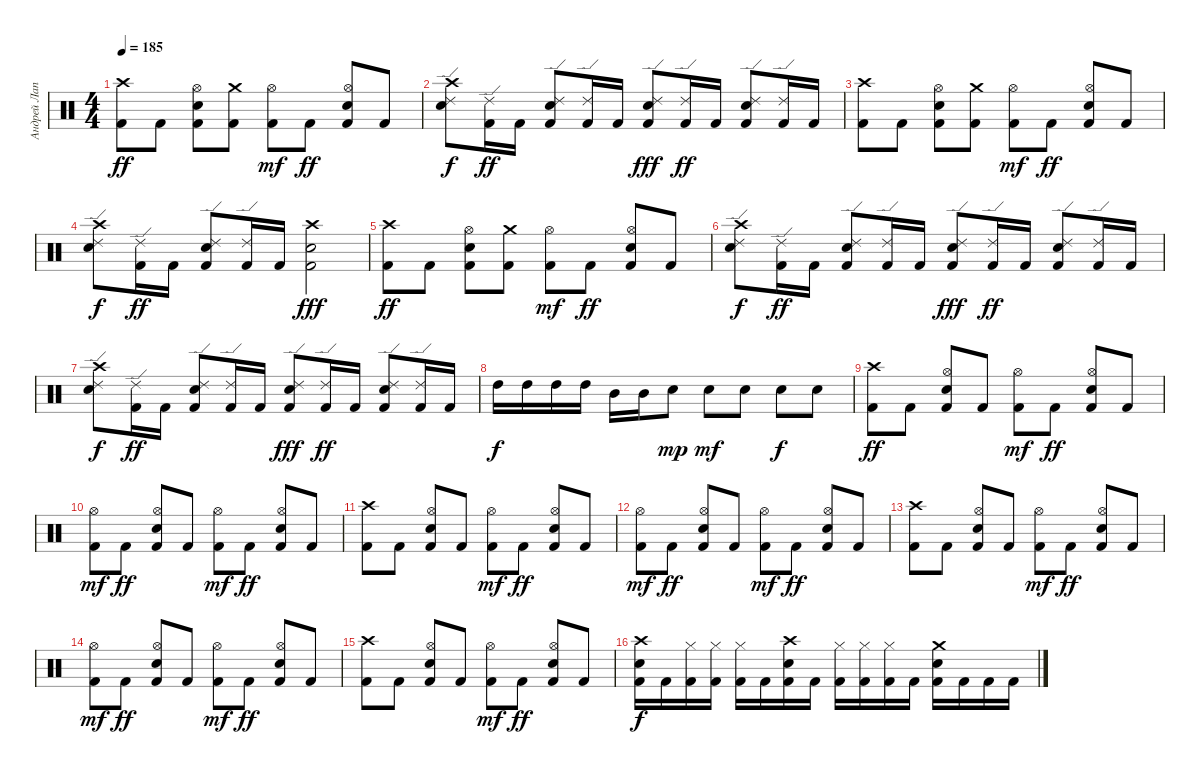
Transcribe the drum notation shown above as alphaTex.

\track ("Андрей Лаптев" "Андрей Лап") {instrument percussion}
\staff {score}
\articulation defaults
\ts (4 4)
\tempo 185
\clef neutral
\ks c
("Crash high (hit)" "Kick (hit) 2").8{dy ff} "Kick (hit) 2".8 ("Hi-Hat (open)" "Electric Snare (hit)" "Kick (hit) 2").8 ("Kick (hit) 2" "Crash medium (hit)").8 ("Kick (hit) 2" "Hi-Hat (open)").8{dy mf} "Kick (hit) 2".8{dy ff} ("Electric Snare (hit)" "Hi-Hat (open)" "Kick (hit) 2").8 "Kick (hit) 2".8 |
("Ride (edge) 2" "Crash high (hit)" "Electric Snare (hit)").8{dy f} ("Kick (hit) 2" "Ride (edge) 2").16{dy ff} "Kick (hit) 2".16 ("Kick (hit) 2" "Electric Snare (hit)" "Ride (edge) 2").8 ("Kick (hit) 2" "Ride (edge) 2").16 "Kick (hit) 2".16 ("Kick (hit) 2" "Ride (edge) 2" "Electric Snare (hit)").8{dy fff} ("Kick (hit) 2" "Ride (edge) 2").16{dy ff} "Kick (hit) 2".16 ("Ride (edge) 2" "Electric Snare (hit)" "Kick (hit) 2").8 ("Kick (hit) 2" "Ride (edge) 2").16 "Kick (hit) 2".16 |
("Crash high (hit)" "Kick (hit) 2").8 "Kick (hit) 2".8 ("Hi-Hat (open)" "Electric Snare (hit)" "Kick (hit) 2").8 ("Kick (hit) 2" "Crash medium (hit)").8 ("Kick (hit) 2" "Hi-Hat (open)").8{dy mf} "Kick (hit) 2".8{dy ff} ("Electric Snare (hit)" "Hi-Hat (open)" "Kick (hit) 2").8 "Kick (hit) 2".8 |
("Ride (edge) 2" "Crash high (hit)" "Electric Snare (hit)").8{dy f} ("Kick (hit) 2" "Ride (edge) 2").16{dy ff} "Kick (hit) 2".16 ("Kick (hit) 2" "Electric Snare (hit)" "Ride (edge) 2").8 ("Kick (hit) 2" "Ride (edge) 2").16 "Kick (hit) 2".16 ("Kick (hit) 2" "Crash high (hit)" "Electric Snare (hit)").2{dy fff} |
("Crash high (hit)" "Kick (hit) 2").8{dy ff} "Kick (hit) 2".8 ("Hi-Hat (open)" "Electric Snare (hit)" "Kick (hit) 2").8 ("Kick (hit) 2" "Crash medium (hit)").8 ("Kick (hit) 2" "Hi-Hat (open)").8{dy mf} "Kick (hit) 2".8{dy ff} ("Electric Snare (hit)" "Hi-Hat (open)" "Kick (hit) 2").8 "Kick (hit) 2".8 |
("Ride (edge) 2" "Crash high (hit)" "Electric Snare (hit)").8{dy f} ("Kick (hit) 2" "Ride (edge) 2").16{dy ff} "Kick (hit) 2".16 ("Kick (hit) 2" "Electric Snare (hit)" "Ride (edge) 2").8 ("Kick (hit) 2" "Ride (edge) 2").16 "Kick (hit) 2".16 ("Kick (hit) 2" "Ride (edge) 2" "Electric Snare (hit)").8{dy fff} ("Kick (hit) 2" "Ride (edge) 2").16{dy ff} "Kick (hit) 2".16 ("Ride (edge) 2" "Electric Snare (hit)" "Kick (hit) 2").8 ("Kick (hit) 2" "Ride (edge) 2").16 "Kick (hit) 2".16 |
("Ride (edge) 2" "Crash high (hit)" "Electric Snare (hit)").8{dy f} ("Kick (hit) 2" "Ride (edge) 2").16{dy ff} "Kick (hit) 2".16 ("Kick (hit) 2" "Electric Snare (hit)" "Ride (edge) 2").8 ("Kick (hit) 2" "Ride (edge) 2").16 "Kick (hit) 2".16 ("Kick (hit) 2" "Ride (edge) 2" "Electric Snare (hit)").8{dy fff} ("Kick (hit) 2" "Ride (edge) 2").16{dy ff} "Kick (hit) 2".16 ("Ride (edge) 2" "Electric Snare (hit)" "Kick (hit) 2").8 ("Kick (hit) 2" "Ride (edge) 2").16 "Kick (hit) 2".16 |
"High Tom (hit)".16{dy f} "High Tom (hit)".16 "High Tom (hit)".16 "High Tom (hit)".16 "Mid Tom (hit)".16 "Mid Tom (hit)".16 "Electric Snare (hit)".8{dy mp} "Electric Snare (hit)".8{dy mf} "Electric Snare (hit)".8 "Electric Snare (hit)".8{dy f} "Electric Snare (hit)".8 |
("Crash high (hit)" "Kick (hit) 2").8{dy ff} "Kick (hit) 2".8 ("Hi-Hat (open)" "Electric Snare (hit)" "Kick (hit) 2").8 "Kick (hit) 2".8 ("Kick (hit) 2" "Hi-Hat (open)").8{dy mf} "Kick (hit) 2".8{dy ff} ("Electric Snare (hit)" "Hi-Hat (open)" "Kick (hit) 2").8 "Kick (hit) 2".8 |
("Kick (hit) 2" "Hi-Hat (open)").8{dy mf} "Kick (hit) 2".8{dy ff} ("Electric Snare (hit)" "Hi-Hat (open)" "Kick (hit) 2").8 "Kick (hit) 2".8 ("Kick (hit) 2" "Hi-Hat (open)").8{dy mf} "Kick (hit) 2".8{dy ff} ("Hi-Hat (open)" "Electric Snare (hit)" "Kick (hit) 2").8 "Kick (hit) 2".8 |
("Crash high (hit)" "Kick (hit) 2").8 "Kick (hit) 2".8 ("Hi-Hat (open)" "Electric Snare (hit)" "Kick (hit) 2").8 "Kick (hit) 2".8 ("Kick (hit) 2" "Hi-Hat (open)").8{dy mf} "Kick (hit) 2".8{dy ff} ("Electric Snare (hit)" "Hi-Hat (open)" "Kick (hit) 2").8 "Kick (hit) 2".8 |
("Kick (hit) 2" "Hi-Hat (open)").8{dy mf} "Kick (hit) 2".8{dy ff} ("Electric Snare (hit)" "Hi-Hat (open)" "Kick (hit) 2").8 "Kick (hit) 2".8 ("Kick (hit) 2" "Hi-Hat (open)").8{dy mf} "Kick (hit) 2".8{dy ff} ("Hi-Hat (open)" "Electric Snare (hit)" "Kick (hit) 2").8 "Kick (hit) 2".8 |
("Crash high (hit)" "Kick (hit) 2").8 "Kick (hit) 2".8 ("Hi-Hat (open)" "Electric Snare (hit)" "Kick (hit) 2").8 "Kick (hit) 2".8 ("Kick (hit) 2" "Hi-Hat (open)").8{dy mf} "Kick (hit) 2".8{dy ff} ("Electric Snare (hit)" "Hi-Hat (open)" "Kick (hit) 2").8 "Kick (hit) 2".8 |
("Kick (hit) 2" "Hi-Hat (open)").8{dy mf} "Kick (hit) 2".8{dy ff} ("Electric Snare (hit)" "Hi-Hat (open)" "Kick (hit) 2").8 "Kick (hit) 2".8 ("Kick (hit) 2" "Hi-Hat (open)").8{dy mf} "Kick (hit) 2".8{dy ff} ("Hi-Hat (open)" "Electric Snare (hit)" "Kick (hit) 2").8 "Kick (hit) 2".8 |
("Crash high (hit)" "Kick (hit) 2").8 "Kick (hit) 2".8 ("Hi-Hat (open)" "Electric Snare (hit)" "Kick (hit) 2").8 "Kick (hit) 2".8 ("Kick (hit) 2" "Hi-Hat (open)").8{dy mf} "Kick (hit) 2".8{dy ff} ("Electric Snare (hit)" "Hi-Hat (open)" "Kick (hit) 2").8 "Kick (hit) 2".8 |
("Kick (hit) 2" "Crash high (hit)" "Electric Snare (hit)").16{dy f} "Kick (hit) 2".16 ("Kick (hit) 2" "Hi-Hat (closed)").16 ("Kick (hit) 2" "Hi-Hat (closed)").16 ("Kick (hit) 2" "Hi-Hat (closed)").16 "Kick (hit) 2".16 ("Kick (hit) 2" "Crash high (hit)" "Electric Snare (hit)").16 "Kick (hit) 2".16 ("Kick (hit) 2" "Hi-Hat (closed)").16 ("Kick (hit) 2" "Hi-Hat (closed)").16 ("Kick (hit) 2" "Hi-Hat (closed)").16 "Kick (hit) 2".16 ("Kick (hit) 2" "Electric Snare (hit)" "Crash medium (hit)").16 "Kick (hit) 2".16 "Kick (hit) 2".16 "Kick (hit) 2".16
